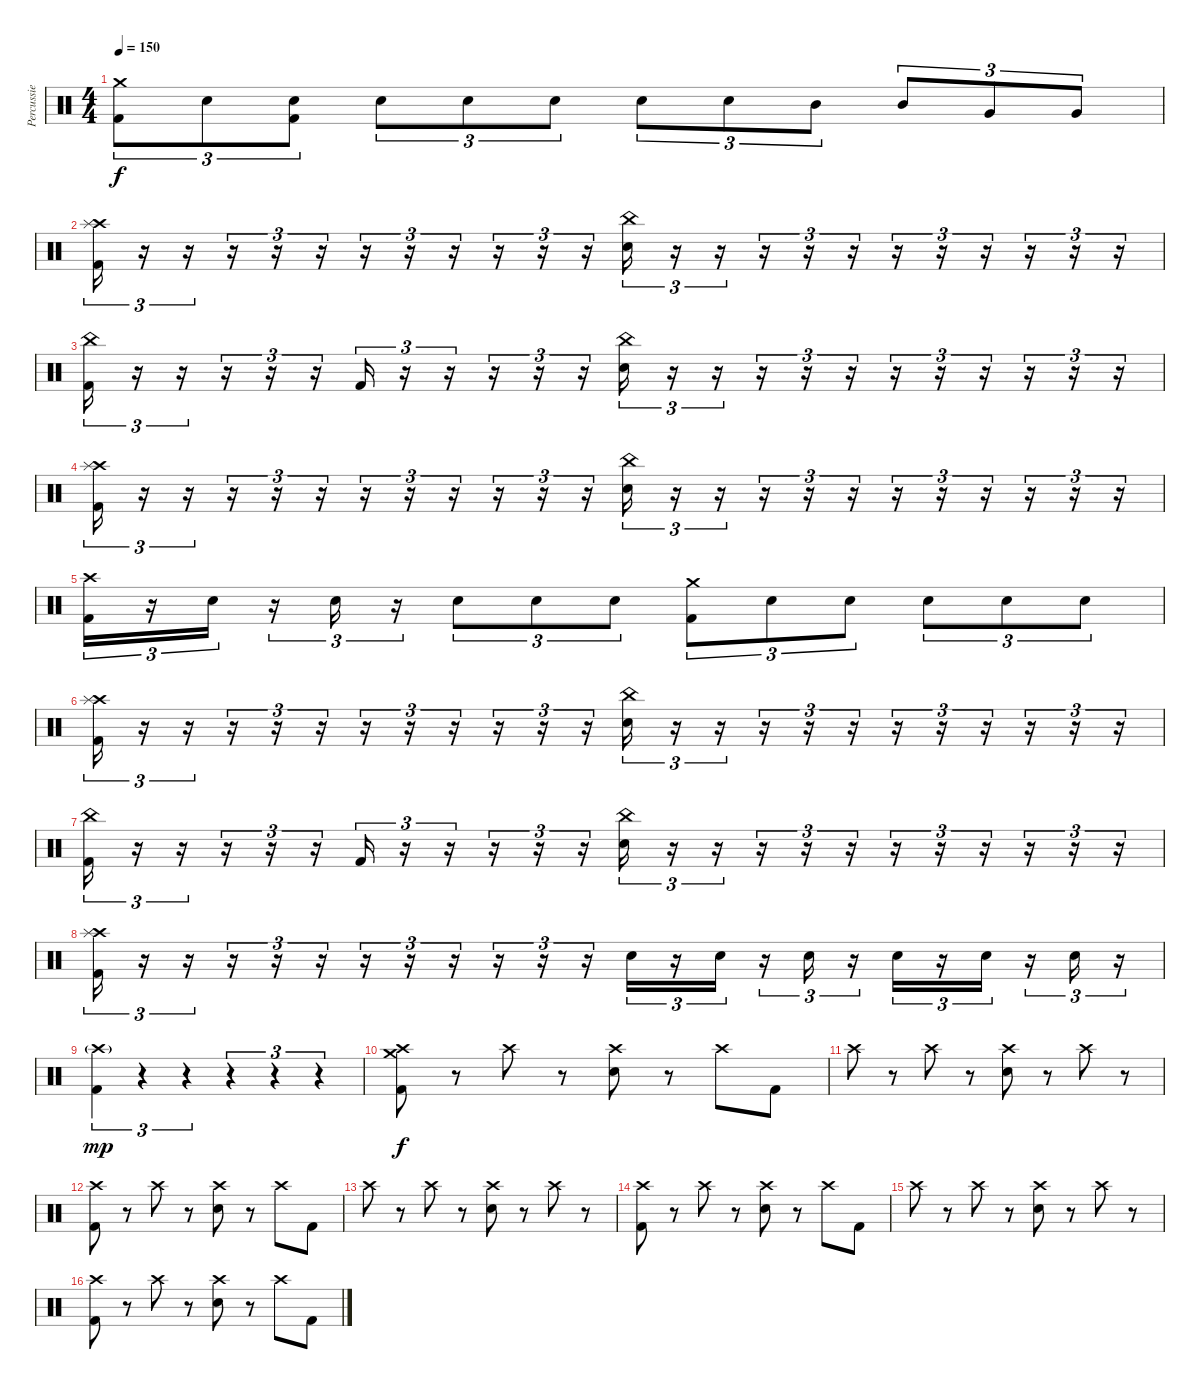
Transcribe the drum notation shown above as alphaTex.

\track ("Percussie" "Percussie") {instrument percussion}
\staff {score}
\articulation defaults
\ts (4 4)
\tempo 150
\clef neutral
\ks c
("Crash medium (hit)" "Kick (hit) 2").8{tu (3 2) dy f} "Electric Snare (hit)".8{tu (3 2)} ("Electric Snare (hit)" "Kick (hit) 2").8{tu (3 2)} "Electric Snare (hit)".8{tu (3 2)} "Electric Snare (hit)".8{tu (3 2)} "Electric Snare (hit)".8{tu (3 2)} "Electric Snare (hit)".8{tu (3 2)} "Electric Snare (hit)".8{tu (3 2)} "Mid Tom (hit)".8{tu (3 2)} "Mid Tom (hit)".8{tu (3 2)} "Very Low Tom (hit)".8{tu (3 2)} "Very Low Tom (hit)".8{tu (3 2)} |
("Crash high (hit)" "Splash (hit)" "Kick (hit) 2").16{tu (3 2)} r.16{tu (3 2)} r.16{tu (3 2)} r.16{tu (3 2)} r.16{tu (3 2)} r.16{tu (3 2)} r.16{tu (3 2)} r.16{tu (3 2)} r.16{tu (3 2)} r.16{tu (3 2)} r.16{tu (3 2)} r.16{tu (3 2)} ("China (hit)" "Electric Snare (hit)").16{tu (3 2)} r.16{tu (3 2)} r.16{tu (3 2)} r.16{tu (3 2)} r.16{tu (3 2)} r.16{tu (3 2)} r.16{tu (3 2)} r.16{tu (3 2)} r.16{tu (3 2)} r.16{tu (3 2)} r.16{tu (3 2)} r.16{tu (3 2)} |
("China (hit)" "Kick (hit) 2").16{tu (3 2)} r.16{tu (3 2)} r.16{tu (3 2)} r.16{tu (3 2)} r.16{tu (3 2)} r.16{tu (3 2)} "Kick (hit) 2".16{tu (3 2)} r.16{tu (3 2)} r.16{tu (3 2)} r.16{tu (3 2)} r.16{tu (3 2)} r.16{tu (3 2)} ("China (hit)" "Electric Snare (hit)").16{tu (3 2)} r.16{tu (3 2)} r.16{tu (3 2)} r.16{tu (3 2)} r.16{tu (3 2)} r.16{tu (3 2)} r.16{tu (3 2)} r.16{tu (3 2)} r.16{tu (3 2)} r.16{tu (3 2)} r.16{tu (3 2)} r.16{tu (3 2)} |
("Crash high (hit)" "Splash (hit)" "Kick (hit) 2").16{tu (3 2)} r.16{tu (3 2)} r.16{tu (3 2)} r.16{tu (3 2)} r.16{tu (3 2)} r.16{tu (3 2)} r.16{tu (3 2)} r.16{tu (3 2)} r.16{tu (3 2)} r.16{tu (3 2)} r.16{tu (3 2)} r.16{tu (3 2)} ("China (hit)" "Electric Snare (hit)").16{tu (3 2)} r.16{tu (3 2)} r.16{tu (3 2)} r.16{tu (3 2)} r.16{tu (3 2)} r.16{tu (3 2)} r.16{tu (3 2)} r.16{tu (3 2)} r.16{tu (3 2)} r.16{tu (3 2)} r.16{tu (3 2)} r.16{tu (3 2)} |
("Crash high (hit)" "Kick (hit) 2").16{tu (3 2)} r.16{tu (3 2)} "Electric Snare (hit)".16{tu (3 2)} r.16{tu (3 2)} "Electric Snare (hit)".16{tu (3 2)} r.16{tu (3 2)} "Electric Snare (hit)".8{tu (3 2)} "Electric Snare (hit)".8{tu (3 2)} "Electric Snare (hit)".8{tu (3 2)} ("Crash medium (hit)" "Kick (hit) 2").8{tu (3 2)} "Electric Snare (hit)".8{tu (3 2)} "Electric Snare (hit)".8{tu (3 2)} "Electric Snare (hit)".8{tu (3 2)} "Electric Snare (hit)".8{tu (3 2)} "Electric Snare (hit)".8{tu (3 2)} |
("Crash high (hit)" "Splash (hit)" "Kick (hit) 2").16{tu (3 2)} r.16{tu (3 2)} r.16{tu (3 2)} r.16{tu (3 2)} r.16{tu (3 2)} r.16{tu (3 2)} r.16{tu (3 2)} r.16{tu (3 2)} r.16{tu (3 2)} r.16{tu (3 2)} r.16{tu (3 2)} r.16{tu (3 2)} ("China (hit)" "Electric Snare (hit)").16{tu (3 2)} r.16{tu (3 2)} r.16{tu (3 2)} r.16{tu (3 2)} r.16{tu (3 2)} r.16{tu (3 2)} r.16{tu (3 2)} r.16{tu (3 2)} r.16{tu (3 2)} r.16{tu (3 2)} r.16{tu (3 2)} r.16{tu (3 2)} |
("China (hit)" "Kick (hit) 2").16{tu (3 2)} r.16{tu (3 2)} r.16{tu (3 2)} r.16{tu (3 2)} r.16{tu (3 2)} r.16{tu (3 2)} "Kick (hit) 2".16{tu (3 2)} r.16{tu (3 2)} r.16{tu (3 2)} r.16{tu (3 2)} r.16{tu (3 2)} r.16{tu (3 2)} ("China (hit)" "Electric Snare (hit)").16{tu (3 2)} r.16{tu (3 2)} r.16{tu (3 2)} r.16{tu (3 2)} r.16{tu (3 2)} r.16{tu (3 2)} r.16{tu (3 2)} r.16{tu (3 2)} r.16{tu (3 2)} r.16{tu (3 2)} r.16{tu (3 2)} r.16{tu (3 2)} |
("Crash high (hit)" "Splash (hit)" "Kick (hit) 2").16{tu (3 2)} r.16{tu (3 2)} r.16{tu (3 2)} r.16{tu (3 2)} r.16{tu (3 2)} r.16{tu (3 2)} r.16{tu (3 2)} r.16{tu (3 2)} r.16{tu (3 2)} r.16{tu (3 2)} r.16{tu (3 2)} r.16{tu (3 2)} "Electric Snare (hit)".16{tu (3 2)} r.16{tu (3 2)} "Electric Snare (hit)".16{tu (3 2)} r.16{tu (3 2)} "Electric Snare (hit)".16{tu (3 2)} r.16{tu (3 2)} "Electric Snare (hit)".16{tu (3 2)} r.16{tu (3 2)} "Electric Snare (hit)".16{tu (3 2)} r.16{tu (3 2)} "Electric Snare (hit)".16{tu (3 2)} r.16{tu (3 2)} |
("Crash high (hit)"{g} "Kick (hit) 2").4{tu (3 2) dy mp} r.4{tu (3 2)} r.4{tu (3 2)} r.4{tu (3 2)} r.4{tu (3 2)} r.4{tu (3 2)} |
("Crash high (hit)" "Crash medium (hit)" "Kick (hit) 2").8{dy f} r.8 "Crash high (hit)".8 r.8 ("Crash high (hit)" "Electric Snare (hit)").8 r.8 "Crash high (hit)".8 "Kick (hit) 2".8 |
"Crash high (hit)".8 r.8 "Crash high (hit)".8 r.8 ("Crash high (hit)" "Electric Snare (hit)").8 r.8 "Crash high (hit)".8 r.8 |
("Crash high (hit)" "Kick (hit) 2").8 r.8 "Crash high (hit)".8 r.8 ("Crash high (hit)" "Electric Snare (hit)").8 r.8 "Crash high (hit)".8 "Kick (hit) 2".8 |
"Crash high (hit)".8 r.8 "Crash high (hit)".8 r.8 ("Crash high (hit)" "Electric Snare (hit)").8 r.8 "Crash high (hit)".8 r.8 |
("Crash high (hit)" "Kick (hit) 2").8 r.8 "Crash high (hit)".8 r.8 ("Crash high (hit)" "Electric Snare (hit)").8 r.8 "Crash high (hit)".8 "Kick (hit) 2".8 |
"Crash high (hit)".8 r.8 "Crash high (hit)".8 r.8 ("Crash high (hit)" "Electric Snare (hit)").8 r.8 "Crash high (hit)".8 r.8 |
("Crash high (hit)" "Kick (hit) 2").8 r.8 "Crash high (hit)".8 r.8 ("Crash high (hit)" "Electric Snare (hit)").8 r.8 "Crash high (hit)".8 "Kick (hit) 2".8
